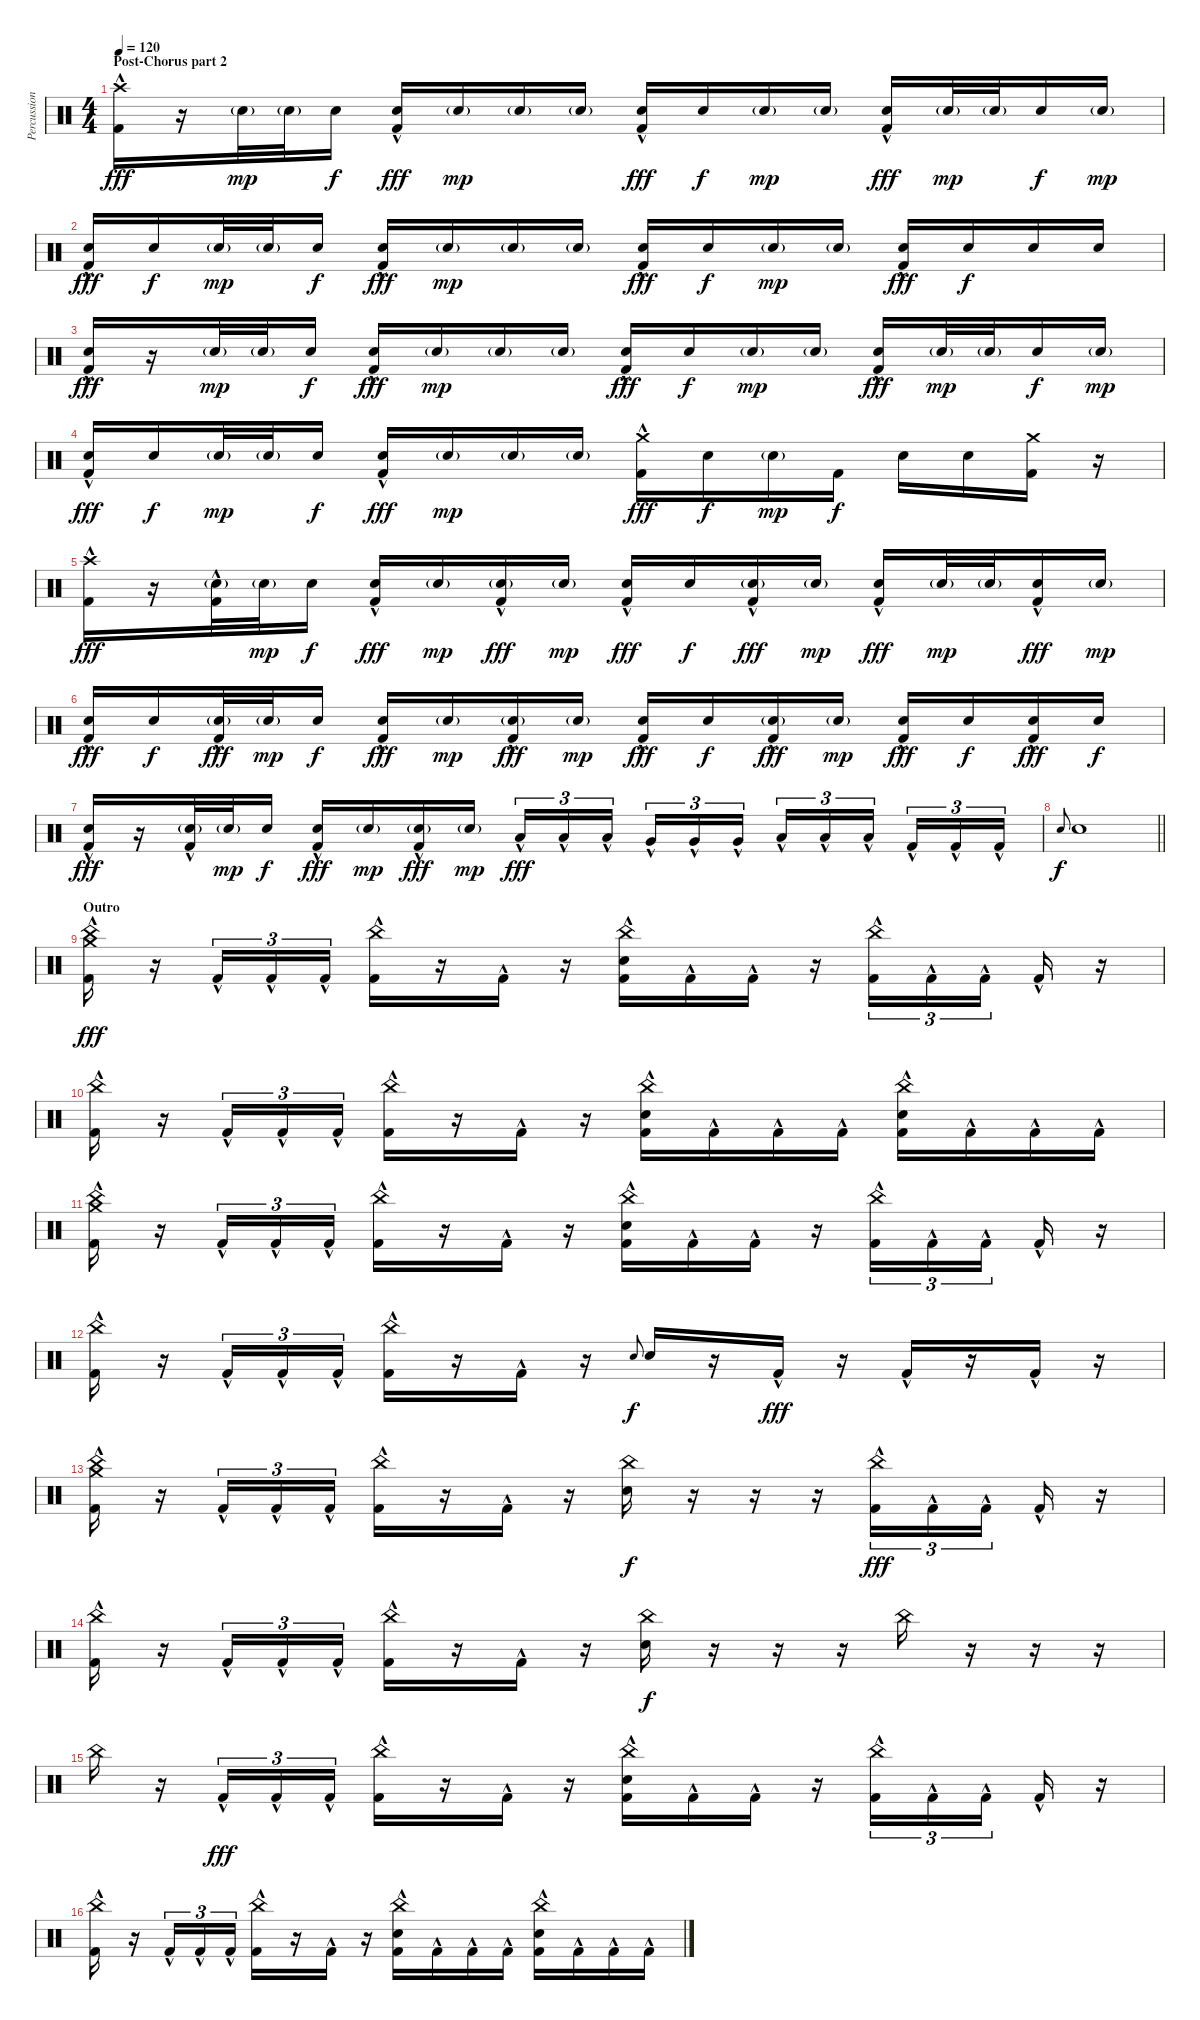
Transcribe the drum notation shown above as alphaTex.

\track ("Percussion" "Percussion") {instrument percussion}
\staff {score}
\articulation defaults
\ts (4 4)
\section ("" "Post-Chorus part 2")
\tempo 120
\clef neutral
\ks c
("Crash high (hit)" "Kick (hit) 2"{hac}).16{dy fff} r.16 "Snare (hit) 2"{g}.32{dy mp} "Snare (hit) 2"{g}.32 "Snare (hit) 2".16{dy f} ("Snare (hit) 2" "Kick (hit) 2"{hac}).16{dy fff} "Snare (hit) 2"{g}.16{dy mp} "Snare (hit) 2"{g}.16 "Snare (hit) 2"{g}.16 ("Snare (hit) 2" "Kick (hit) 2"{hac}).16{dy fff} "Snare (hit) 2".16{dy f} "Snare (hit) 2"{g}.16{dy mp} "Snare (hit) 2"{g}.16 ("Snare (hit) 2" "Kick (hit) 2"{hac}).16{dy fff} "Snare (hit) 2"{g}.32{dy mp} "Snare (hit) 2"{g}.32 "Snare (hit) 2".16{dy f} "Snare (hit) 2"{g}.16{dy mp} |
("Snare (hit) 2" "Kick (hit) 2"{hac}).16{dy fff} "Snare (hit) 2".16{dy f} "Snare (hit) 2"{g}.32{dy mp} "Snare (hit) 2"{g}.32 "Snare (hit) 2".16{dy f} ("Snare (hit) 2" "Kick (hit) 2"{hac}).16{dy fff} "Snare (hit) 2"{g}.16{dy mp} "Snare (hit) 2"{g}.16 "Snare (hit) 2"{g}.16 ("Snare (hit) 2" "Kick (hit) 2"{hac}).16{dy fff} "Snare (hit) 2".16{dy f} "Snare (hit) 2"{g}.16{dy mp} "Snare (hit) 2"{g}.16 ("Snare (hit) 2" "Kick (hit) 2"{hac}).16{dy fff} "Snare (hit) 2".16{dy f} "Snare (hit) 2".16 "Snare (hit) 2".16 |
("Snare (hit) 2" "Kick (hit) 2"{hac}).16{dy fff} r.16 "Snare (hit) 2"{g}.32{dy mp} "Snare (hit) 2"{g}.32 "Snare (hit) 2".16{dy f} ("Snare (hit) 2" "Kick (hit) 2"{hac}).16{dy fff} "Snare (hit) 2"{g}.16{dy mp} "Snare (hit) 2"{g}.16 "Snare (hit) 2"{g}.16 ("Snare (hit) 2" "Kick (hit) 2"{hac}).16{dy fff} "Snare (hit) 2".16{dy f} "Snare (hit) 2"{g}.16{dy mp} "Snare (hit) 2"{g}.16 ("Snare (hit) 2" "Kick (hit) 2"{hac}).16{dy fff} "Snare (hit) 2"{g}.32{dy mp} "Snare (hit) 2"{g}.32 "Snare (hit) 2".16{dy f} "Snare (hit) 2"{g}.16{dy mp} |
("Snare (hit) 2" "Kick (hit) 2"{hac}).16{dy fff} "Snare (hit) 2".16{dy f} "Snare (hit) 2"{g}.32{dy mp} "Snare (hit) 2"{g}.32 "Snare (hit) 2".16{dy f} ("Snare (hit) 2" "Kick (hit) 2"{hac}).16{dy fff} "Snare (hit) 2"{g}.16{dy mp} "Snare (hit) 2"{g}.16 "Snare (hit) 2"{g}.16 ("Crash medium (hit)" "Kick (hit) 2"{hac}).16{dy fff} "Snare (hit) 2".16{dy f} "Snare (hit) 2"{g}.16{dy mp} "Kick (hit) 2".16{dy f} "Snare (hit) 2".16 "Snare (hit) 2".16 ("Crash medium (hit)" "Kick (hit) 2").16 r.16 |
("Crash high (hit)" "Kick (hit) 2"{hac}).16{dy fff} r.16 ("Snare (hit) 2"{g} "Kick (hit) 2"{hac}).32 "Snare (hit) 2"{g}.32{dy mp} "Snare (hit) 2".16{dy f} ("Snare (hit) 2" "Kick (hit) 2"{hac}).16{dy fff} "Snare (hit) 2"{g}.16{dy mp} ("Snare (hit) 2"{g} "Kick (hit) 2"{hac}).16{dy fff} "Snare (hit) 2"{g}.16{dy mp} ("Snare (hit) 2" "Kick (hit) 2"{hac}).16{dy fff} "Snare (hit) 2".16{dy f} ("Snare (hit) 2"{g} "Kick (hit) 2"{hac}).16{dy fff} "Snare (hit) 2"{g}.16{dy mp} ("Snare (hit) 2" "Kick (hit) 2"{hac}).16{dy fff} "Snare (hit) 2"{g}.32{dy mp} "Snare (hit) 2"{g}.32 ("Snare (hit) 2" "Kick (hit) 2"{hac}).16{dy fff} "Snare (hit) 2"{g}.16{dy mp} |
("Snare (hit) 2" "Kick (hit) 2"{hac}).16{dy fff} "Snare (hit) 2".16{dy f} ("Snare (hit) 2"{g} "Kick (hit) 2"{hac}).32{dy fff} "Snare (hit) 2"{g}.32{dy mp} "Snare (hit) 2".16{dy f} ("Snare (hit) 2" "Kick (hit) 2"{hac}).16{dy fff} "Snare (hit) 2"{g}.16{dy mp} ("Snare (hit) 2"{g} "Kick (hit) 2"{hac}).16{dy fff} "Snare (hit) 2"{g}.16{dy mp} ("Snare (hit) 2" "Kick (hit) 2"{hac}).16{dy fff} "Snare (hit) 2".16{dy f} ("Snare (hit) 2"{g} "Kick (hit) 2"{hac}).16{dy fff} "Snare (hit) 2"{g}.16{dy mp} ("Snare (hit) 2" "Kick (hit) 2"{hac}).16{dy fff} "Snare (hit) 2".16{dy f} ("Snare (hit) 2" "Kick (hit) 2"{hac}).16{dy fff} "Snare (hit) 2".16{dy f} |
("Snare (hit) 2" "Kick (hit) 2"{hac}).16{dy fff} r.16 ("Snare (hit) 2"{g} "Kick (hit) 2"{hac}).32 "Snare (hit) 2"{g}.32{dy mp} "Snare (hit) 2".16{dy f} ("Snare (hit) 2" "Kick (hit) 2"{hac}).16{dy fff} "Snare (hit) 2"{g}.16{dy mp} ("Snare (hit) 2"{g} "Kick (hit) 2"{hac}).16{dy fff} "Snare (hit) 2"{g}.16{dy mp} "Low Tom (hit)"{hac}.16{tu (3 2) dy fff} "Low Tom (hit)"{hac}.16{tu (3 2)} "Low Tom (hit)"{hac}.16{tu (3 2) beam splitsecondary} "Very Low Tom (hit)"{hac}.16{tu (3 2)} "Very Low Tom (hit)"{hac}.16{tu (3 2)} "Very Low Tom (hit)"{hac}.16{tu (3 2)} "Low Floor Tom (hit)"{hac}.16{tu (3 2)} "Low Floor Tom (hit)"{hac}.16{tu (3 2)} "Low Floor Tom (hit)"{hac}.16{tu (3 2) beam splitsecondary} "Kick (hit) 2"{hac}.16{tu (3 2)} "Kick (hit) 2"{hac}.16{tu (3 2)} "Kick (hit) 2"{hac}.16{tu (3 2)} |
\barLineRight lightlight "Snare (hit) 2".8{gr onbeat dy f} "Snare (hit) 2".1
|
\section ("" "Outro")
("China (hit)" "Crash medium (hit)" "Kick (hit) 2"{hac}).16{dy fff} r.16 "Kick (hit) 2"{hac}.16{tu (3 2)} "Kick (hit) 2"{hac}.16{tu (3 2)} "Kick (hit) 2"{hac}.16{tu (3 2)} ("China (hit)" "Kick (hit) 2"{hac}).16 r.16 "Kick (hit) 2"{hac}.16 r.16 ("China (hit)" "Snare (hit) 2" "Kick (hit) 2"{hac}).16 "Kick (hit) 2"{hac}.16 "Kick (hit) 2"{hac}.16 r.16 ("China (hit)" "Kick (hit) 2"{hac}).16{tu (3 2)} "Kick (hit) 2"{hac}.16{tu (3 2)} "Kick (hit) 2"{hac}.16{tu (3 2) beam splitsecondary} "Kick (hit) 2"{hac}.16 r.16 |
("China (hit)" "Kick (hit) 2"{hac}).16 r.16 "Kick (hit) 2"{hac}.16{tu (3 2)} "Kick (hit) 2"{hac}.16{tu (3 2)} "Kick (hit) 2"{hac}.16{tu (3 2)} ("China (hit)" "Kick (hit) 2"{hac}).16 r.16 "Kick (hit) 2"{hac}.16 r.16 ("China (hit)" "Snare (hit) 2" "Kick (hit) 2"{hac}).16 "Kick (hit) 2"{hac}.16 "Kick (hit) 2"{hac}.16 "Kick (hit) 2"{hac}.16 ("China (hit)" "Snare (hit) 2" "Kick (hit) 2"{hac}).16 "Kick (hit) 2"{hac}.16 "Kick (hit) 2"{hac}.16 "Kick (hit) 2"{hac}.16 |
("China (hit)" "Crash medium (hit)" "Kick (hit) 2"{hac}).16 r.16 "Kick (hit) 2"{hac}.16{tu (3 2)} "Kick (hit) 2"{hac}.16{tu (3 2)} "Kick (hit) 2"{hac}.16{tu (3 2)} ("China (hit)" "Kick (hit) 2"{hac}).16 r.16 "Kick (hit) 2"{hac}.16 r.16 ("China (hit)" "Snare (hit) 2" "Kick (hit) 2"{hac}).16 "Kick (hit) 2"{hac}.16 "Kick (hit) 2"{hac}.16 r.16 ("China (hit)" "Kick (hit) 2"{hac}).16{tu (3 2)} "Kick (hit) 2"{hac}.16{tu (3 2)} "Kick (hit) 2"{hac}.16{tu (3 2) beam splitsecondary} "Kick (hit) 2"{hac}.16 r.16 |
("China (hit)" "Kick (hit) 2"{hac}).16 r.16 "Kick (hit) 2"{hac}.16{tu (3 2)} "Kick (hit) 2"{hac}.16{tu (3 2)} "Kick (hit) 2"{hac}.16{tu (3 2)} ("China (hit)" "Kick (hit) 2"{hac}).16 r.16 "Kick (hit) 2"{hac}.16 r.16 "Snare (hit) 2".8{gr onbeat dy f} "Snare (hit) 2".16 r.16 "Kick (hit) 2"{hac}.16{dy fff} r.16 "Kick (hit) 2"{hac}.16 r.16 "Kick (hit) 2"{hac}.16 r.16 |
("China (hit)" "Crash medium (hit)" "Kick (hit) 2"{hac}).16 r.16 "Kick (hit) 2"{hac}.16{tu (3 2)} "Kick (hit) 2"{hac}.16{tu (3 2)} "Kick (hit) 2"{hac}.16{tu (3 2)} ("China (hit)" "Kick (hit) 2"{hac}).16 r.16 "Kick (hit) 2"{hac}.16 r.16 ("China (hit)" "Snare (hit) 2").16{dy f} r.16 r.16 r.16 ("China (hit)" "Kick (hit) 2"{hac}).16{tu (3 2) dy fff} "Kick (hit) 2"{hac}.16{tu (3 2)} "Kick (hit) 2"{hac}.16{tu (3 2) beam splitsecondary} "Kick (hit) 2"{hac}.16 r.16 |
("China (hit)" "Kick (hit) 2"{hac}).16 r.16 "Kick (hit) 2"{hac}.16{tu (3 2)} "Kick (hit) 2"{hac}.16{tu (3 2)} "Kick (hit) 2"{hac}.16{tu (3 2)} ("China (hit)" "Kick (hit) 2"{hac}).16 r.16 "Kick (hit) 2"{hac}.16 r.16 ("China (hit)" "Snare (hit) 2").16{dy f} r.16 r.16 r.16 "China (hit)".16 r.16 r.16 r.16 |
"China (hit)".16 r.16 "Kick (hit) 2"{hac}.16{tu (3 2) dy fff} "Kick (hit) 2"{hac}.16{tu (3 2)} "Kick (hit) 2"{hac}.16{tu (3 2)} ("China (hit)" "Kick (hit) 2"{hac}).16 r.16 "Kick (hit) 2"{hac}.16 r.16 ("China (hit)" "Snare (hit) 2" "Kick (hit) 2"{hac}).16 "Kick (hit) 2"{hac}.16 "Kick (hit) 2"{hac}.16 r.16 ("China (hit)" "Kick (hit) 2"{hac}).16{tu (3 2)} "Kick (hit) 2"{hac}.16{tu (3 2)} "Kick (hit) 2"{hac}.16{tu (3 2) beam splitsecondary} "Kick (hit) 2"{hac}.16 r.16 |
("China (hit)" "Kick (hit) 2"{hac}).16 r.16 "Kick (hit) 2"{hac}.16{tu (3 2)} "Kick (hit) 2"{hac}.16{tu (3 2)} "Kick (hit) 2"{hac}.16{tu (3 2)} ("China (hit)" "Kick (hit) 2"{hac}).16 r.16 "Kick (hit) 2"{hac}.16 r.16 ("China (hit)" "Snare (hit) 2" "Kick (hit) 2"{hac}).16 "Kick (hit) 2"{hac}.16 "Kick (hit) 2"{hac}.16 "Kick (hit) 2"{hac}.16 ("China (hit)" "Snare (hit) 2" "Kick (hit) 2"{hac}).16 "Kick (hit) 2"{hac}.16 "Kick (hit) 2"{hac}.16 "Kick (hit) 2"{hac}.16
